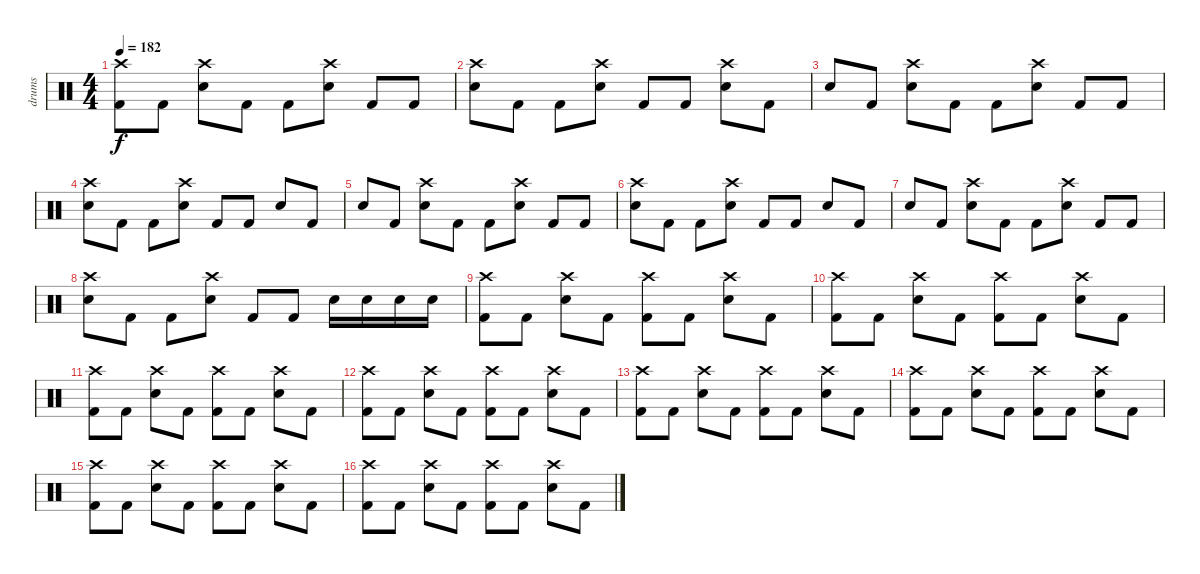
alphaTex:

\track ("drums" "drums") {instrument percussion}
\staff {score}
\articulation defaults
\ts (4 4)
\tempo 182
\clef neutral
\ks c
("Crash high (hit)" "Kick (hit) 2").8{dy f} "Kick (hit) 2".8 ("Crash high (hit)" "Electric Snare (hit)").8 "Kick (hit) 2".8 "Kick (hit) 2".8 ("Crash high (hit)" "Electric Snare (hit)").8 "Kick (hit) 2".8 "Kick (hit) 2".8 |
("Crash high (hit)" "Electric Snare (hit)").8 "Kick (hit) 2".8 "Kick (hit) 2".8 ("Crash high (hit)" "Electric Snare (hit)").8 "Kick (hit) 2".8 "Kick (hit) 2".8 ("Crash high (hit)" "Electric Snare (hit)").8 "Kick (hit) 2".8 |
"Electric Snare (hit)".8 "Kick (hit) 2".8 ("Crash high (hit)" "Electric Snare (hit)").8 "Kick (hit) 2".8 "Kick (hit) 2".8 ("Crash high (hit)" "Electric Snare (hit)").8 "Kick (hit) 2".8 "Kick (hit) 2".8 |
("Crash high (hit)" "Electric Snare (hit)").8 "Kick (hit) 2".8 "Kick (hit) 2".8 ("Crash high (hit)" "Electric Snare (hit)").8 "Kick (hit) 2".8 "Kick (hit) 2".8 "Electric Snare (hit)".8 "Kick (hit) 2".8 |
"Electric Snare (hit)".8 "Kick (hit) 2".8 ("Crash high (hit)" "Electric Snare (hit)").8 "Kick (hit) 2".8 "Kick (hit) 2".8 ("Crash high (hit)" "Electric Snare (hit)").8 "Kick (hit) 2".8 "Kick (hit) 2".8 |
("Crash high (hit)" "Electric Snare (hit)").8 "Kick (hit) 2".8 "Kick (hit) 2".8 ("Crash high (hit)" "Electric Snare (hit)").8 "Kick (hit) 2".8 "Kick (hit) 2".8 "Electric Snare (hit)".8 "Kick (hit) 2".8 |
"Electric Snare (hit)".8 "Kick (hit) 2".8 ("Crash high (hit)" "Electric Snare (hit)").8 "Kick (hit) 2".8 "Kick (hit) 2".8 ("Crash high (hit)" "Electric Snare (hit)").8 "Kick (hit) 2".8 "Kick (hit) 2".8 |
("Crash high (hit)" "Electric Snare (hit)").8 "Kick (hit) 2".8 "Kick (hit) 2".8 ("Crash high (hit)" "Electric Snare (hit)").8 "Kick (hit) 2".8 "Kick (hit) 2".8 "Electric Snare (hit)".16 "Electric Snare (hit)".16 "Electric Snare (hit)".16 "Electric Snare (hit)".16 |
("Crash high (hit)" "Kick (hit) 2").8 "Kick (hit) 2".8 ("Crash high (hit)" "Electric Snare (hit)").8 "Kick (hit) 2".8 ("Crash high (hit)" "Kick (hit) 2").8 "Kick (hit) 2".8 ("Crash high (hit)" "Electric Snare (hit)").8 "Kick (hit) 2".8 |
("Crash high (hit)" "Kick (hit) 2").8 "Kick (hit) 2".8 ("Crash high (hit)" "Electric Snare (hit)").8 "Kick (hit) 2".8 ("Crash high (hit)" "Kick (hit) 2").8 "Kick (hit) 2".8 ("Crash high (hit)" "Electric Snare (hit)").8 "Kick (hit) 2".8 |
("Crash high (hit)" "Kick (hit) 2").8 "Kick (hit) 2".8 ("Crash high (hit)" "Electric Snare (hit)").8 "Kick (hit) 2".8 ("Crash high (hit)" "Kick (hit) 2").8 "Kick (hit) 2".8 ("Crash high (hit)" "Electric Snare (hit)").8 "Kick (hit) 2".8 |
("Crash high (hit)" "Kick (hit) 2").8 "Kick (hit) 2".8 ("Crash high (hit)" "Electric Snare (hit)").8 "Kick (hit) 2".8 ("Crash high (hit)" "Kick (hit) 2").8 "Kick (hit) 2".8 ("Crash high (hit)" "Electric Snare (hit)").8 "Kick (hit) 2".8 |
("Crash high (hit)" "Kick (hit) 2").8 "Kick (hit) 2".8 ("Crash high (hit)" "Electric Snare (hit)").8 "Kick (hit) 2".8 ("Crash high (hit)" "Kick (hit) 2").8 "Kick (hit) 2".8 ("Crash high (hit)" "Electric Snare (hit)").8 "Kick (hit) 2".8 |
("Crash high (hit)" "Kick (hit) 2").8 "Kick (hit) 2".8 ("Crash high (hit)" "Electric Snare (hit)").8 "Kick (hit) 2".8 ("Crash high (hit)" "Kick (hit) 2").8 "Kick (hit) 2".8 ("Crash high (hit)" "Electric Snare (hit)").8 "Kick (hit) 2".8 |
("Crash high (hit)" "Kick (hit) 2").8 "Kick (hit) 2".8 ("Crash high (hit)" "Electric Snare (hit)").8 "Kick (hit) 2".8 ("Crash high (hit)" "Kick (hit) 2").8 "Kick (hit) 2".8 ("Crash high (hit)" "Electric Snare (hit)").8 "Kick (hit) 2".8 |
("Crash high (hit)" "Kick (hit) 2").8 "Kick (hit) 2".8 ("Crash high (hit)" "Electric Snare (hit)").8 "Kick (hit) 2".8 ("Crash high (hit)" "Kick (hit) 2").8 "Kick (hit) 2".8 ("Crash high (hit)" "Electric Snare (hit)").8 "Kick (hit) 2".8
